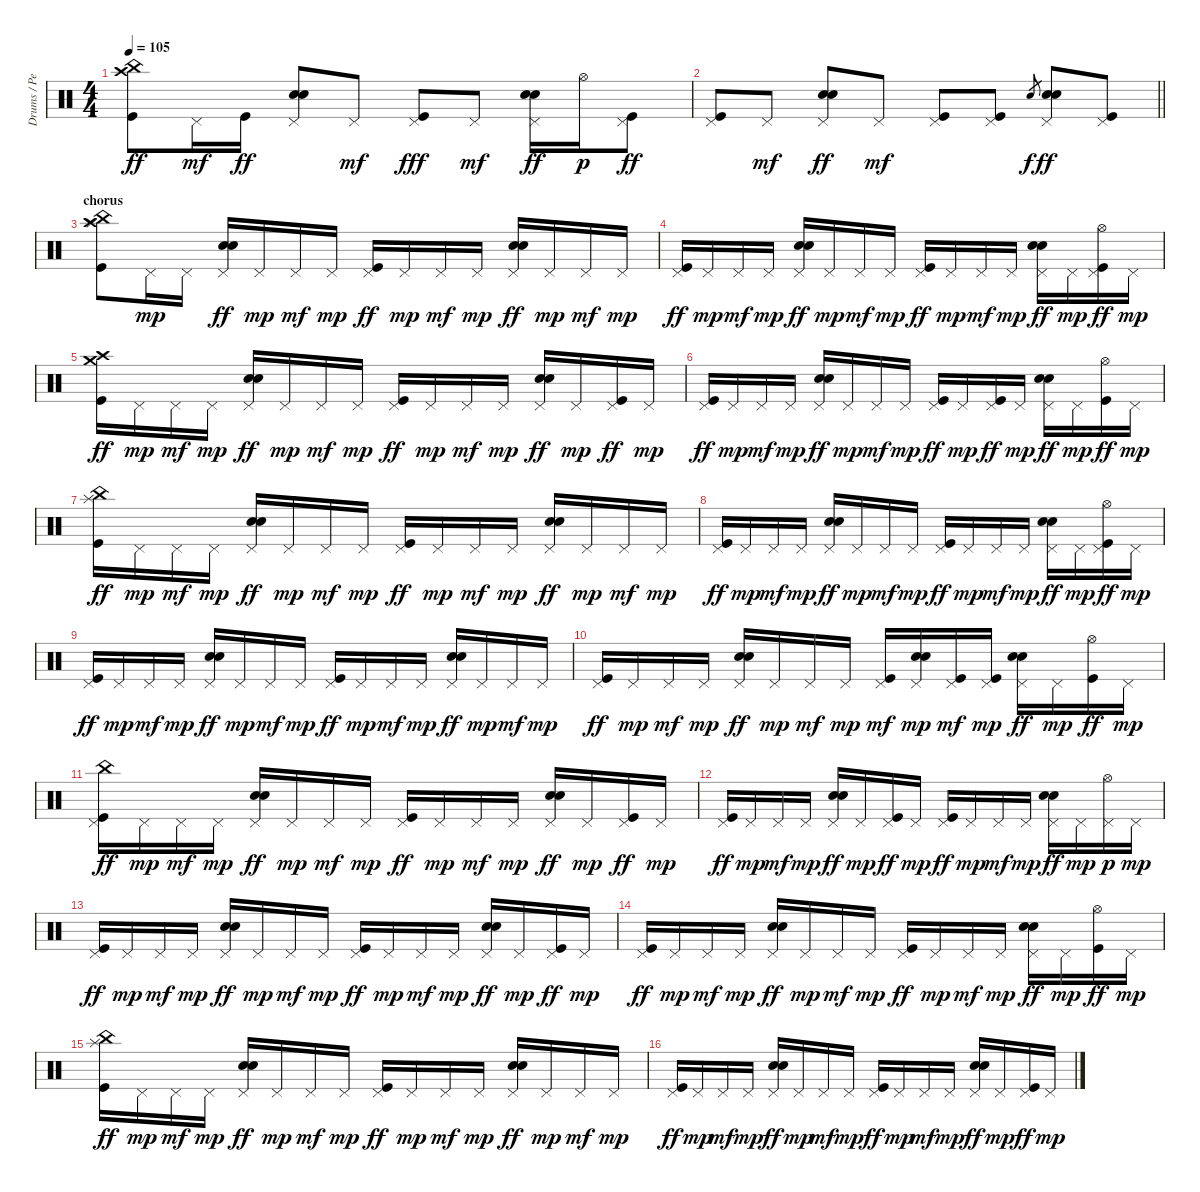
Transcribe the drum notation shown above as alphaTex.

\track ("Drums / Percussion" "Drums / Pe") {instrument percussion}
\staff {score}
\articulation defaults
\ts (4 4)
\tempo 105
\clef neutral
\ks c
("Crash high (hit)" "China (hit)" "Kick (hit)").8{dy ff} "Pedal Hi-Hat (hit)".16{dy mf} "Kick (hit)".16{dy ff} ("Pedal Hi-Hat (hit)" "Electric Snare (hit)" "Snare (hit) 2").8 "Pedal Hi-Hat (hit)".8{dy mf} ("Pedal Hi-Hat (hit)" "Kick (hit)").8{dy fff} "Pedal Hi-Hat (hit)".8{dy mf} ("Pedal Hi-Hat (hit)" "Electric Snare (hit)" "Snare (hit) 2").16{dy ff} "Hi-Hat (open)".16{dy p} ("Pedal Hi-Hat (hit)" "Kick (hit)").8{dy ff} |
\barLineRight lightlight
("Pedal Hi-Hat (hit)" "Kick (hit)").8 "Pedal Hi-Hat (hit)".8{dy mf} ("Pedal Hi-Hat (hit)" "Electric Snare (hit)" "Snare (hit) 2").8{dy ff} "Pedal Hi-Hat (hit)".8{dy mf} ("Pedal Hi-Hat (hit)" "Kick (hit)").8 ("Pedal Hi-Hat (hit)" "Kick (hit)").8 "Snare (hit) 2".8{gr dy f} ("Pedal Hi-Hat (hit)" "Electric Snare (hit)" "Snare (hit) 2").8{dy ff} ("Pedal Hi-Hat (hit)" "Kick (hit)").8 |
\section ("" "chorus")
("China (hit)" "Splash (hit)" "Crash high (hit)" "Kick (hit)").8{volume 12} "Pedal Hi-Hat (hit)".16{dy mp} "Pedal Hi-Hat (hit)".16 ("Pedal Hi-Hat (hit)" "Electric Snare (hit)" "Snare (hit) 2").16{dy ff} "Pedal Hi-Hat (hit)".16{dy mp} "Pedal Hi-Hat (hit)".16{dy mf} "Pedal Hi-Hat (hit)".16{dy mp} ("Pedal Hi-Hat (hit)" "Kick (hit)").16{dy ff} "Pedal Hi-Hat (hit)".16{dy mp} "Pedal Hi-Hat (hit)".16{dy mf} "Pedal Hi-Hat (hit)".16{dy mp} ("Pedal Hi-Hat (hit)" "Electric Snare (hit)" "Snare (hit) 2").16{dy ff} "Pedal Hi-Hat (hit)".16{dy mp} "Pedal Hi-Hat (hit)".16{dy mf} "Pedal Hi-Hat (hit)".16{dy mp} |
("Pedal Hi-Hat (hit)" "Kick (hit)").16{dy ff} "Pedal Hi-Hat (hit)".16{dy mp} "Pedal Hi-Hat (hit)".16{dy mf} "Pedal Hi-Hat (hit)".16{dy mp} ("Pedal Hi-Hat (hit)" "Electric Snare (hit)" "Snare (hit) 2").16{dy ff} "Pedal Hi-Hat (hit)".16{dy mp} "Pedal Hi-Hat (hit)".16{dy mf} "Pedal Hi-Hat (hit)".16{dy mp} ("Pedal Hi-Hat (hit)" "Kick (hit)").16{dy ff} "Pedal Hi-Hat (hit)".16{dy mp} "Pedal Hi-Hat (hit)".16{dy mf} "Pedal Hi-Hat (hit)".16{dy mp} ("Pedal Hi-Hat (hit)" "Electric Snare (hit)" "Snare (hit) 2").16{dy ff} "Pedal Hi-Hat (hit)".16{dy mp} ("Pedal Hi-Hat (hit)" "Hi-Hat (open)" "Kick (hit)").16{dy ff} "Pedal Hi-Hat (hit)".16{dy mp} |
("Crash medium (hit)" "Crash high (hit)" "Kick (hit)").16{dy ff} "Pedal Hi-Hat (hit)".16{dy mp} "Pedal Hi-Hat (hit)".16{dy mf} "Pedal Hi-Hat (hit)".16{dy mp} ("Pedal Hi-Hat (hit)" "Electric Snare (hit)" "Snare (hit) 2").16{dy ff} "Pedal Hi-Hat (hit)".16{dy mp} "Pedal Hi-Hat (hit)".16{dy mf} "Pedal Hi-Hat (hit)".16{dy mp} ("Pedal Hi-Hat (hit)" "Kick (hit)").16{dy ff} "Pedal Hi-Hat (hit)".16{dy mp} "Pedal Hi-Hat (hit)".16{dy mf} "Pedal Hi-Hat (hit)".16{dy mp} ("Pedal Hi-Hat (hit)" "Electric Snare (hit)" "Snare (hit) 2").16{dy ff} "Pedal Hi-Hat (hit)".16{dy mp} ("Pedal Hi-Hat (hit)" "Kick (hit)").16{dy ff} "Pedal Hi-Hat (hit)".16{dy mp} |
("Pedal Hi-Hat (hit)" "Kick (hit)").16{dy ff} "Pedal Hi-Hat (hit)".16{dy mp} "Pedal Hi-Hat (hit)".16{dy mf} "Pedal Hi-Hat (hit)".16{dy mp} ("Pedal Hi-Hat (hit)" "Electric Snare (hit)" "Snare (hit) 2").16{dy ff} "Pedal Hi-Hat (hit)".16{dy mp} "Pedal Hi-Hat (hit)".16{dy mf} "Pedal Hi-Hat (hit)".16{dy mp} ("Pedal Hi-Hat (hit)" "Kick (hit)").16{dy ff} "Pedal Hi-Hat (hit)".16{dy mp} ("Pedal Hi-Hat (hit)" "Kick (hit)").16{dy ff} "Pedal Hi-Hat (hit)".16{dy mp} ("Pedal Hi-Hat (hit)" "Electric Snare (hit)" "Snare (hit) 2").16{dy ff} "Pedal Hi-Hat (hit)".16{dy mp} ("Hi-Hat (open)" "Kick (hit)").16{dy ff} "Pedal Hi-Hat (hit)".16{dy mp} |
("Splash (hit)" "China (hit)" "Kick (hit)").16{dy ff} "Pedal Hi-Hat (hit)".16{dy mp} "Pedal Hi-Hat (hit)".16{dy mf} "Pedal Hi-Hat (hit)".16{dy mp} ("Pedal Hi-Hat (hit)" "Electric Snare (hit)" "Snare (hit) 2").16{dy ff} "Pedal Hi-Hat (hit)".16{dy mp} "Pedal Hi-Hat (hit)".16{dy mf} "Pedal Hi-Hat (hit)".16{dy mp} ("Pedal Hi-Hat (hit)" "Kick (hit)").16{dy ff} "Pedal Hi-Hat (hit)".16{dy mp} "Pedal Hi-Hat (hit)".16{dy mf} "Pedal Hi-Hat (hit)".16{dy mp} ("Pedal Hi-Hat (hit)" "Electric Snare (hit)" "Snare (hit) 2").16{dy ff} "Pedal Hi-Hat (hit)".16{dy mp} "Pedal Hi-Hat (hit)".16{dy mf} "Pedal Hi-Hat (hit)".16{dy mp} |
("Pedal Hi-Hat (hit)" "Kick (hit)").16{dy ff} "Pedal Hi-Hat (hit)".16{dy mp} "Pedal Hi-Hat (hit)".16{dy mf} "Pedal Hi-Hat (hit)".16{dy mp} ("Pedal Hi-Hat (hit)" "Electric Snare (hit)" "Snare (hit) 2").16{dy ff} "Pedal Hi-Hat (hit)".16{dy mp} "Pedal Hi-Hat (hit)".16{dy mf} "Pedal Hi-Hat (hit)".16{dy mp} ("Pedal Hi-Hat (hit)" "Kick (hit)").16{dy ff} "Pedal Hi-Hat (hit)".16{dy mp} "Pedal Hi-Hat (hit)".16{dy mf} "Pedal Hi-Hat (hit)".16{dy mp} ("Pedal Hi-Hat (hit)" "Electric Snare (hit)" "Snare (hit) 2").16{dy ff} "Pedal Hi-Hat (hit)".16{dy mp} ("Pedal Hi-Hat (hit)" "Hi-Hat (open)" "Kick (hit)").16{dy ff} "Pedal Hi-Hat (hit)".16{dy mp} |
("Pedal Hi-Hat (hit)" "Kick (hit)").16{dy ff} "Pedal Hi-Hat (hit)".16{dy mp} "Pedal Hi-Hat (hit)".16{dy mf} "Pedal Hi-Hat (hit)".16{dy mp} ("Pedal Hi-Hat (hit)" "Electric Snare (hit)" "Snare (hit) 2").16{dy ff} "Pedal Hi-Hat (hit)".16{dy mp} "Pedal Hi-Hat (hit)".16{dy mf} "Pedal Hi-Hat (hit)".16{dy mp} ("Pedal Hi-Hat (hit)" "Kick (hit)").16{dy ff} "Pedal Hi-Hat (hit)".16{dy mp} "Pedal Hi-Hat (hit)".16{dy mf} "Pedal Hi-Hat (hit)".16{dy mp} ("Pedal Hi-Hat (hit)" "Electric Snare (hit)" "Snare (hit) 2").16{dy ff} "Pedal Hi-Hat (hit)".16{dy mp} "Pedal Hi-Hat (hit)".16{dy mf} "Pedal Hi-Hat (hit)".16{dy mp} |
("Pedal Hi-Hat (hit)" "Kick (hit)").16{dy ff} "Pedal Hi-Hat (hit)".16{dy mp} "Pedal Hi-Hat (hit)".16{dy mf} "Pedal Hi-Hat (hit)".16{dy mp} ("Pedal Hi-Hat (hit)" "Electric Snare (hit)" "Snare (hit) 2").16{dy ff} "Pedal Hi-Hat (hit)".16{dy mp} "Pedal Hi-Hat (hit)".16{dy mf} "Pedal Hi-Hat (hit)".16{dy mp} ("Pedal Hi-Hat (hit)" "Kick (hit)").16{dy mf} ("Pedal Hi-Hat (hit)" "Electric Snare (hit)" "Snare (hit) 2").16{dy mp} ("Pedal Hi-Hat (hit)" "Kick (hit)").16{dy mf} ("Pedal Hi-Hat (hit)" "Kick (hit)").16{dy mp} ("Pedal Hi-Hat (hit)" "Electric Snare (hit)" "Snare (hit) 2").16{dy ff} "Pedal Hi-Hat (hit)".16{dy mp} ("Hi-Hat (open)" "Kick (hit)").16{dy ff} "Pedal Hi-Hat (hit)".16{dy mp} |
("Pedal Hi-Hat (hit)" "China (hit)" "Kick (hit)").16{dy ff} "Pedal Hi-Hat (hit)".16{dy mp} "Pedal Hi-Hat (hit)".16{dy mf} "Pedal Hi-Hat (hit)".16{dy mp} ("Pedal Hi-Hat (hit)" "Electric Snare (hit)" "Snare (hit) 2").16{dy ff} "Pedal Hi-Hat (hit)".16{dy mp} "Pedal Hi-Hat (hit)".16{dy mf} "Pedal Hi-Hat (hit)".16{dy mp} ("Pedal Hi-Hat (hit)" "Kick (hit)").16{dy ff} "Pedal Hi-Hat (hit)".16{dy mp} "Pedal Hi-Hat (hit)".16{dy mf} "Pedal Hi-Hat (hit)".16{dy mp} ("Pedal Hi-Hat (hit)" "Electric Snare (hit)" "Snare (hit) 2").16{dy ff} "Pedal Hi-Hat (hit)".16{dy mp} ("Pedal Hi-Hat (hit)" "Kick (hit)").16{dy ff} "Pedal Hi-Hat (hit)".16{dy mp} |
("Pedal Hi-Hat (hit)" "Kick (hit)").16{dy ff} "Pedal Hi-Hat (hit)".16{dy mp} "Pedal Hi-Hat (hit)".16{dy mf} "Pedal Hi-Hat (hit)".16{dy mp} ("Pedal Hi-Hat (hit)" "Electric Snare (hit)" "Snare (hit) 2").16{dy ff} "Pedal Hi-Hat (hit)".16{dy mp} ("Pedal Hi-Hat (hit)" "Kick (hit)").16{dy ff} "Pedal Hi-Hat (hit)".16{dy mp} ("Pedal Hi-Hat (hit)" "Kick (hit)").16{dy ff} "Pedal Hi-Hat (hit)".16{dy mp} "Pedal Hi-Hat (hit)".16{dy mf} "Pedal Hi-Hat (hit)".16{dy mp} ("Pedal Hi-Hat (hit)" "Electric Snare (hit)" "Snare (hit) 2").16{dy ff} "Pedal Hi-Hat (hit)".16{dy mp} ("Pedal Hi-Hat (hit)" "Hi-Hat (open)").16{dy p} "Pedal Hi-Hat (hit)".16{dy mp} |
("Pedal Hi-Hat (hit)" "Kick (hit)").16{dy ff} "Pedal Hi-Hat (hit)".16{dy mp} "Pedal Hi-Hat (hit)".16{dy mf} "Pedal Hi-Hat (hit)".16{dy mp} ("Pedal Hi-Hat (hit)" "Electric Snare (hit)" "Snare (hit) 2").16{dy ff} "Pedal Hi-Hat (hit)".16{dy mp} "Pedal Hi-Hat (hit)".16{dy mf} "Pedal Hi-Hat (hit)".16{dy mp} ("Pedal Hi-Hat (hit)" "Kick (hit)").16{dy ff} "Pedal Hi-Hat (hit)".16{dy mp} "Pedal Hi-Hat (hit)".16{dy mf} "Pedal Hi-Hat (hit)".16{dy mp} ("Pedal Hi-Hat (hit)" "Electric Snare (hit)" "Snare (hit) 2").16{dy ff} "Pedal Hi-Hat (hit)".16{dy mp} ("Pedal Hi-Hat (hit)" "Kick (hit)").16{dy ff} "Pedal Hi-Hat (hit)".16{dy mp} |
("Pedal Hi-Hat (hit)" "Kick (hit)").16{dy ff} "Pedal Hi-Hat (hit)".16{dy mp} "Pedal Hi-Hat (hit)".16{dy mf} "Pedal Hi-Hat (hit)".16{dy mp} ("Pedal Hi-Hat (hit)" "Electric Snare (hit)" "Snare (hit) 2").16{dy ff} "Pedal Hi-Hat (hit)".16{dy mp} "Pedal Hi-Hat (hit)".16{dy mf} "Pedal Hi-Hat (hit)".16{dy mp} ("Pedal Hi-Hat (hit)" "Kick (hit)").16{dy ff} "Pedal Hi-Hat (hit)".16{dy mp} "Pedal Hi-Hat (hit)".16{dy mf} "Pedal Hi-Hat (hit)".16{dy mp} ("Pedal Hi-Hat (hit)" "Electric Snare (hit)" "Snare (hit) 2").16{dy ff} "Pedal Hi-Hat (hit)".16{dy mp} ("Hi-Hat (open)" "Kick (hit)").16{dy ff} "Pedal Hi-Hat (hit)".16{dy mp} |
("Splash (hit)" "China (hit)" "Kick (hit)").16{dy ff} "Pedal Hi-Hat (hit)".16{dy mp} "Pedal Hi-Hat (hit)".16{dy mf} "Pedal Hi-Hat (hit)".16{dy mp} ("Pedal Hi-Hat (hit)" "Electric Snare (hit)" "Snare (hit) 2").16{dy ff} "Pedal Hi-Hat (hit)".16{dy mp} "Pedal Hi-Hat (hit)".16{dy mf} "Pedal Hi-Hat (hit)".16{dy mp} ("Pedal Hi-Hat (hit)" "Kick (hit)").16{dy ff} "Pedal Hi-Hat (hit)".16{dy mp} "Pedal Hi-Hat (hit)".16{dy mf} "Pedal Hi-Hat (hit)".16{dy mp} ("Pedal Hi-Hat (hit)" "Electric Snare (hit)" "Snare (hit) 2").16{dy ff} "Pedal Hi-Hat (hit)".16{dy mp} "Pedal Hi-Hat (hit)".16{dy mf} "Pedal Hi-Hat (hit)".16{dy mp} |
("Pedal Hi-Hat (hit)" "Kick (hit)").16{dy ff} "Pedal Hi-Hat (hit)".16{dy mp} "Pedal Hi-Hat (hit)".16{dy mf} "Pedal Hi-Hat (hit)".16{dy mp} ("Pedal Hi-Hat (hit)" "Electric Snare (hit)" "Snare (hit) 2").16{dy ff} "Pedal Hi-Hat (hit)".16{dy mp} "Pedal Hi-Hat (hit)".16{dy mf} "Pedal Hi-Hat (hit)".16{dy mp} ("Pedal Hi-Hat (hit)" "Kick (hit)").16{dy ff} "Pedal Hi-Hat (hit)".16{dy mp} "Pedal Hi-Hat (hit)".16{dy mf} "Pedal Hi-Hat (hit)".16{dy mp} ("Pedal Hi-Hat (hit)" "Electric Snare (hit)" "Snare (hit) 2").16{dy ff} "Pedal Hi-Hat (hit)".16{dy mp} ("Pedal Hi-Hat (hit)" "Kick (hit)").16{dy ff} "Pedal Hi-Hat (hit)".16{dy mp}
